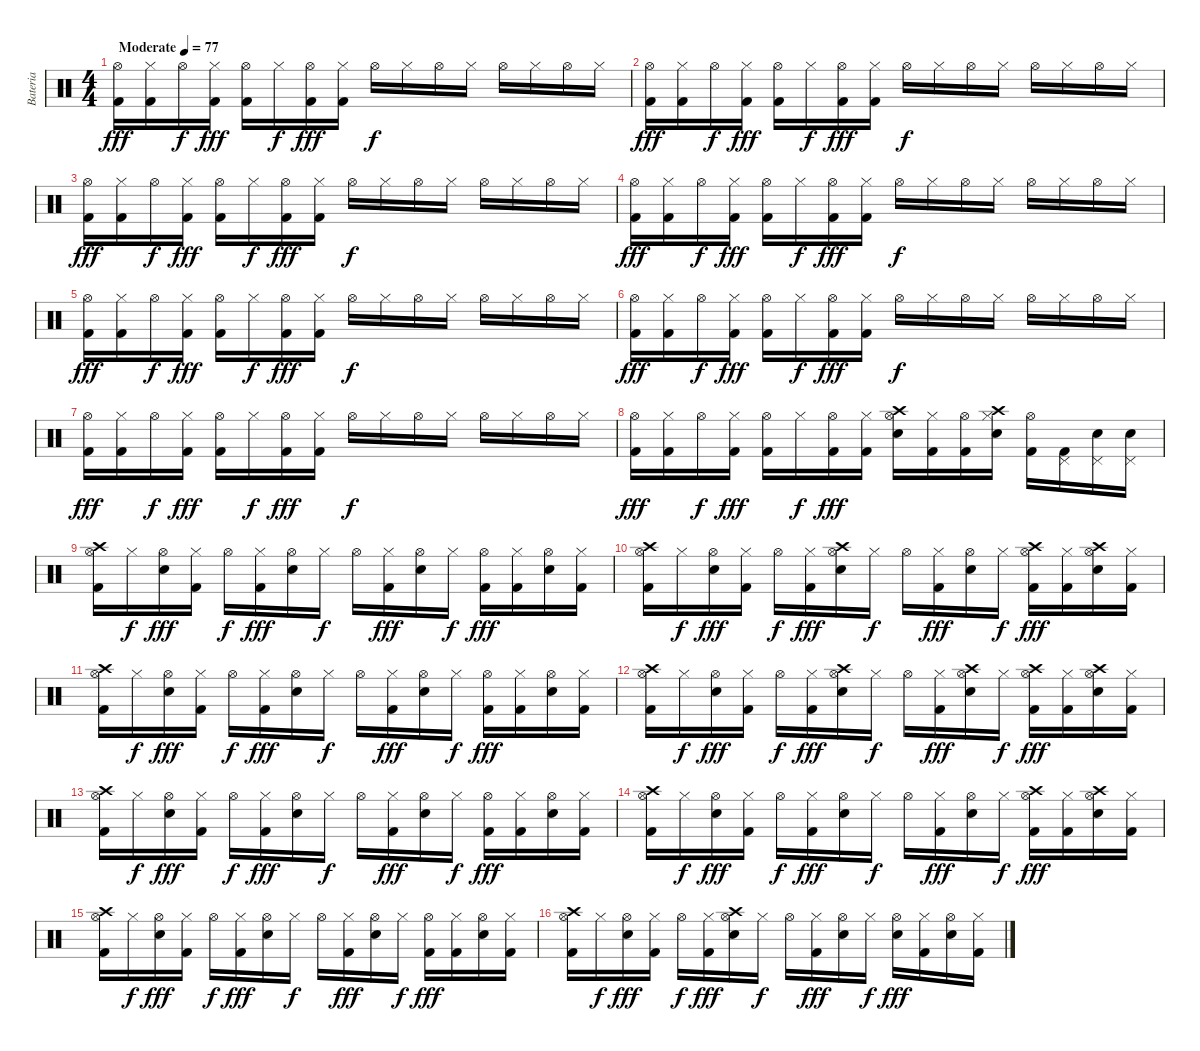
\track ("Bateria" "Bateria") {instrument percussion}
\staff {score}
\articulation defaults
\ts (4 4)
\tempo (77 "Moderate")
\clef neutral
\ks c
("Hi-Hat (open)" "Kick (hit) 2").16{dy fff} ("Hi-Hat (closed)" "Kick (hit) 2").16 "Hi-Hat (open)".16{dy f} ("Hi-Hat (closed)" "Kick (hit) 2").16{dy fff} ("Hi-Hat (open)" "Kick (hit) 2").16 "Hi-Hat (closed)".16{dy f} ("Hi-Hat (open)" "Kick (hit) 2").16{dy fff} ("Hi-Hat (closed)" "Kick (hit) 2").16 "Hi-Hat (open)".16{dy f} "Hi-Hat (closed)".16 "Hi-Hat (open)".16 "Hi-Hat (closed)".16 "Hi-Hat (open)".16 "Hi-Hat (closed)".16 "Hi-Hat (open)".16 "Hi-Hat (closed)".16 |
("Hi-Hat (open)" "Kick (hit) 2").16{dy fff} ("Hi-Hat (closed)" "Kick (hit) 2").16 "Hi-Hat (open)".16{dy f} ("Hi-Hat (closed)" "Kick (hit) 2").16{dy fff} ("Hi-Hat (open)" "Kick (hit) 2").16 "Hi-Hat (closed)".16{dy f} ("Hi-Hat (open)" "Kick (hit) 2").16{dy fff} ("Hi-Hat (closed)" "Kick (hit) 2").16 "Hi-Hat (open)".16{dy f} "Hi-Hat (closed)".16 "Hi-Hat (open)".16 "Hi-Hat (closed)".16 "Hi-Hat (open)".16 "Hi-Hat (closed)".16 "Hi-Hat (open)".16 "Hi-Hat (closed)".16 |
("Hi-Hat (open)" "Kick (hit) 2").16{dy fff} ("Hi-Hat (closed)" "Kick (hit) 2").16 "Hi-Hat (open)".16{dy f} ("Hi-Hat (closed)" "Kick (hit) 2").16{dy fff} ("Hi-Hat (open)" "Kick (hit) 2").16 "Hi-Hat (closed)".16{dy f} ("Hi-Hat (open)" "Kick (hit) 2").16{dy fff} ("Hi-Hat (closed)" "Kick (hit) 2").16 "Hi-Hat (open)".16{dy f} "Hi-Hat (closed)".16 "Hi-Hat (open)".16 "Hi-Hat (closed)".16 "Hi-Hat (open)".16 "Hi-Hat (closed)".16 "Hi-Hat (open)".16 "Hi-Hat (closed)".16 |
("Hi-Hat (open)" "Kick (hit) 2").16{dy fff} ("Hi-Hat (closed)" "Kick (hit) 2").16 "Hi-Hat (open)".16{dy f} ("Hi-Hat (closed)" "Kick (hit) 2").16{dy fff} ("Hi-Hat (open)" "Kick (hit) 2").16 "Hi-Hat (closed)".16{dy f} ("Hi-Hat (open)" "Kick (hit) 2").16{dy fff} ("Hi-Hat (closed)" "Kick (hit) 2").16 "Hi-Hat (open)".16{dy f} "Hi-Hat (closed)".16 "Hi-Hat (open)".16 "Hi-Hat (closed)".16 "Hi-Hat (open)".16 "Hi-Hat (closed)".16 "Hi-Hat (open)".16 "Hi-Hat (closed)".16 |
("Hi-Hat (open)" "Kick (hit) 2").16{dy fff} ("Hi-Hat (closed)" "Kick (hit) 2").16 "Hi-Hat (open)".16{dy f} ("Hi-Hat (closed)" "Kick (hit) 2").16{dy fff} ("Hi-Hat (open)" "Kick (hit) 2").16 "Hi-Hat (closed)".16{dy f} ("Hi-Hat (open)" "Kick (hit) 2").16{dy fff} ("Hi-Hat (closed)" "Kick (hit) 2").16 "Hi-Hat (open)".16{dy f} "Hi-Hat (closed)".16 "Hi-Hat (open)".16 "Hi-Hat (closed)".16 "Hi-Hat (open)".16 "Hi-Hat (closed)".16 "Hi-Hat (open)".16 "Hi-Hat (closed)".16 |
("Hi-Hat (open)" "Kick (hit) 2").16{dy fff} ("Hi-Hat (closed)" "Kick (hit) 2").16 "Hi-Hat (open)".16{dy f} ("Hi-Hat (closed)" "Kick (hit) 2").16{dy fff} ("Hi-Hat (open)" "Kick (hit) 2").16 "Hi-Hat (closed)".16{dy f} ("Hi-Hat (open)" "Kick (hit) 2").16{dy fff} ("Hi-Hat (closed)" "Kick (hit) 2").16 "Hi-Hat (open)".16{dy f} "Hi-Hat (closed)".16 "Hi-Hat (open)".16 "Hi-Hat (closed)".16 "Hi-Hat (open)".16 "Hi-Hat (closed)".16 "Hi-Hat (open)".16 "Hi-Hat (closed)".16 |
("Hi-Hat (open)" "Kick (hit) 2").16{dy fff} ("Hi-Hat (closed)" "Kick (hit) 2").16 "Hi-Hat (open)".16{dy f} ("Hi-Hat (closed)" "Kick (hit) 2").16{dy fff} ("Hi-Hat (open)" "Kick (hit) 2").16 "Hi-Hat (closed)".16{dy f} ("Hi-Hat (open)" "Kick (hit) 2").16{dy fff} ("Hi-Hat (closed)" "Kick (hit) 2").16 "Hi-Hat (open)".16{dy f} "Hi-Hat (closed)".16 "Hi-Hat (open)".16 "Hi-Hat (closed)".16 "Hi-Hat (open)".16 "Hi-Hat (closed)".16 "Hi-Hat (open)".16 "Hi-Hat (closed)".16 |
("Hi-Hat (open)" "Kick (hit) 2").16{dy fff} ("Hi-Hat (closed)" "Kick (hit) 2").16 "Hi-Hat (open)".16{dy f} ("Hi-Hat (closed)" "Kick (hit) 2").16{dy fff} ("Hi-Hat (open)" "Kick (hit) 2").16 "Hi-Hat (closed)".16{dy f} ("Hi-Hat (open)" "Kick (hit) 2").16{dy fff} ("Hi-Hat (closed)" "Kick (hit) 2").16 ("Crash high (hit)" "Hi-Hat (open)" "Electric Snare (hit)").16 ("Hi-Hat (closed)" "Kick (hit) 2").16 ("Hi-Hat (open)" "Kick (hit) 2").16 ("Crash high (hit)" "Hi-Hat (closed)" "Electric Snare (hit)").16 ("Hi-Hat (open)" "Kick (hit) 2").16 ("Pedal Hi-Hat (hit)" "Kick (hit) 2").16 ("Pedal Hi-Hat (hit)" "Electric Snare (hit)").16 ("Pedal Hi-Hat (hit)" "Electric Snare (hit)").16 |
("Crash high (hit)" "Hi-Hat (open)" "Kick (hit) 2").16 "Hi-Hat (closed)".16{dy f} ("Hi-Hat (open)" "Electric Snare (hit)").16{dy fff} ("Hi-Hat (closed)" "Kick (hit) 2").16 "Hi-Hat (open)".16{dy f} ("Hi-Hat (closed)" "Kick (hit) 2").16{dy fff} ("Hi-Hat (open)" "Electric Snare (hit)").16 "Hi-Hat (closed)".16{dy f} "Hi-Hat (open)".16 ("Hi-Hat (closed)" "Kick (hit) 2").16{dy fff} ("Hi-Hat (open)" "Electric Snare (hit)").16 "Hi-Hat (closed)".16{dy f} ("Hi-Hat (open)" "Kick (hit) 2").16{dy fff} ("Hi-Hat (closed)" "Kick (hit) 2").16 ("Hi-Hat (open)" "Electric Snare (hit)").16 ("Hi-Hat (closed)" "Kick (hit) 2").16 |
("Crash high (hit)" "Hi-Hat (open)" "Kick (hit) 2").16 "Hi-Hat (closed)".16{dy f} ("Hi-Hat (open)" "Electric Snare (hit)").16{dy fff} ("Hi-Hat (closed)" "Kick (hit) 2").16 "Hi-Hat (open)".16{dy f} ("Hi-Hat (closed)" "Kick (hit) 2").16{dy fff} ("Crash high (hit)" "Hi-Hat (open)" "Electric Snare (hit)").16 "Hi-Hat (closed)".16{dy f} "Hi-Hat (open)".16 ("Hi-Hat (closed)" "Kick (hit) 2").16{dy fff} ("Hi-Hat (open)" "Electric Snare (hit)").16 "Hi-Hat (closed)".16{dy f} ("Crash high (hit)" "Hi-Hat (open)" "Kick (hit) 2").16{dy fff} ("Hi-Hat (closed)" "Kick (hit) 2").16 ("Crash high (hit)" "Hi-Hat (open)" "Electric Snare (hit)").16 ("Hi-Hat (closed)" "Kick (hit) 2").16 |
("Crash high (hit)" "Hi-Hat (open)" "Kick (hit) 2").16 "Hi-Hat (closed)".16{dy f} ("Hi-Hat (open)" "Electric Snare (hit)").16{dy fff} ("Hi-Hat (closed)" "Kick (hit) 2").16 "Hi-Hat (open)".16{dy f} ("Hi-Hat (closed)" "Kick (hit) 2").16{dy fff} ("Hi-Hat (open)" "Electric Snare (hit)").16 "Hi-Hat (closed)".16{dy f} "Hi-Hat (open)".16 ("Hi-Hat (closed)" "Kick (hit) 2").16{dy fff} ("Hi-Hat (open)" "Electric Snare (hit)").16 "Hi-Hat (closed)".16{dy f} ("Hi-Hat (open)" "Kick (hit) 2").16{dy fff} ("Hi-Hat (closed)" "Kick (hit) 2").16 ("Hi-Hat (open)" "Electric Snare (hit)").16 ("Hi-Hat (closed)" "Kick (hit) 2").16 |
("Crash high (hit)" "Hi-Hat (open)" "Kick (hit) 2").16 "Hi-Hat (closed)".16{dy f} ("Hi-Hat (open)" "Electric Snare (hit)").16{dy fff} ("Hi-Hat (closed)" "Kick (hit) 2").16 "Hi-Hat (open)".16{dy f} ("Hi-Hat (closed)" "Kick (hit) 2").16{dy fff} ("Crash high (hit)" "Hi-Hat (open)" "Electric Snare (hit)").16 "Hi-Hat (closed)".16{dy f} "Hi-Hat (open)".16 ("Hi-Hat (closed)" "Kick (hit) 2").16{dy fff} ("Crash high (hit)" "Hi-Hat (open)" "Electric Snare (hit)").16 "Hi-Hat (closed)".16{dy f} ("Crash high (hit)" "Hi-Hat (open)" "Kick (hit) 2").16{dy fff} ("Hi-Hat (closed)" "Kick (hit) 2").16 ("Crash high (hit)" "Hi-Hat (open)" "Electric Snare (hit)").16 ("Hi-Hat (closed)" "Kick (hit) 2").16 |
("Crash high (hit)" "Hi-Hat (open)" "Kick (hit) 2").16 "Hi-Hat (closed)".16{dy f} ("Hi-Hat (open)" "Electric Snare (hit)").16{dy fff} ("Hi-Hat (closed)" "Kick (hit) 2").16 "Hi-Hat (open)".16{dy f} ("Hi-Hat (closed)" "Kick (hit) 2").16{dy fff} ("Hi-Hat (open)" "Electric Snare (hit)").16 "Hi-Hat (closed)".16{dy f} "Hi-Hat (open)".16 ("Hi-Hat (closed)" "Kick (hit) 2").16{dy fff} ("Hi-Hat (open)" "Electric Snare (hit)").16 "Hi-Hat (closed)".16{dy f} ("Hi-Hat (open)" "Kick (hit) 2").16{dy fff} ("Hi-Hat (closed)" "Kick (hit) 2").16 ("Hi-Hat (open)" "Electric Snare (hit)").16 ("Hi-Hat (closed)" "Kick (hit) 2").16 |
("Crash high (hit)" "Hi-Hat (open)" "Kick (hit) 2").16 "Hi-Hat (closed)".16{dy f} ("Hi-Hat (open)" "Electric Snare (hit)").16{dy fff} ("Hi-Hat (closed)" "Kick (hit) 2").16 "Hi-Hat (open)".16{dy f} ("Hi-Hat (closed)" "Kick (hit) 2").16{dy fff} ("Hi-Hat (open)" "Electric Snare (hit)").16 "Hi-Hat (closed)".16{dy f} "Hi-Hat (open)".16 ("Hi-Hat (closed)" "Kick (hit) 2").16{dy fff} ("Hi-Hat (open)" "Electric Snare (hit)").16 "Hi-Hat (closed)".16{dy f} ("Crash high (hit)" "Hi-Hat (open)" "Kick (hit) 2").16{dy fff} ("Hi-Hat (closed)" "Kick (hit) 2").16 ("Crash high (hit)" "Hi-Hat (open)" "Electric Snare (hit)").16 ("Hi-Hat (closed)" "Kick (hit) 2").16 |
("Crash high (hit)" "Hi-Hat (open)" "Kick (hit) 2").16 "Hi-Hat (closed)".16{dy f} ("Hi-Hat (open)" "Electric Snare (hit)").16{dy fff} ("Hi-Hat (closed)" "Kick (hit) 2").16 "Hi-Hat (open)".16{dy f} ("Hi-Hat (closed)" "Kick (hit) 2").16{dy fff} ("Hi-Hat (open)" "Electric Snare (hit)").16 "Hi-Hat (closed)".16{dy f} "Hi-Hat (open)".16 ("Hi-Hat (closed)" "Kick (hit) 2").16{dy fff} ("Hi-Hat (open)" "Electric Snare (hit)").16 "Hi-Hat (closed)".16{dy f} ("Hi-Hat (open)" "Kick (hit) 2").16{dy fff} ("Hi-Hat (closed)" "Kick (hit) 2").16 ("Hi-Hat (open)" "Electric Snare (hit)").16 ("Hi-Hat (closed)" "Kick (hit) 2").16 |
("Crash high (hit)" "Hi-Hat (open)" "Kick (hit) 2").16 "Hi-Hat (closed)".16{dy f} ("Hi-Hat (open)" "Electric Snare (hit)").16{dy fff} ("Hi-Hat (closed)" "Kick (hit) 2").16 "Hi-Hat (open)".16{dy f} ("Hi-Hat (closed)" "Kick (hit) 2").16{dy fff} ("Crash high (hit)" "Hi-Hat (open)" "Electric Snare (hit)").16 "Hi-Hat (closed)".16{dy f} "Hi-Hat (open)".16 ("Hi-Hat (closed)" "Kick (hit) 2").16{dy fff} ("Hi-Hat (open)" "Electric Snare (hit)").16 "Hi-Hat (closed)".16{dy f} ("Hi-Hat (open)" "Electric Snare (hit)").16{dy fff} ("Hi-Hat (closed)" "Kick (hit) 2").16 ("Hi-Hat (open)" "Electric Snare (hit)").16 ("Hi-Hat (closed)" "Kick (hit) 2").16
